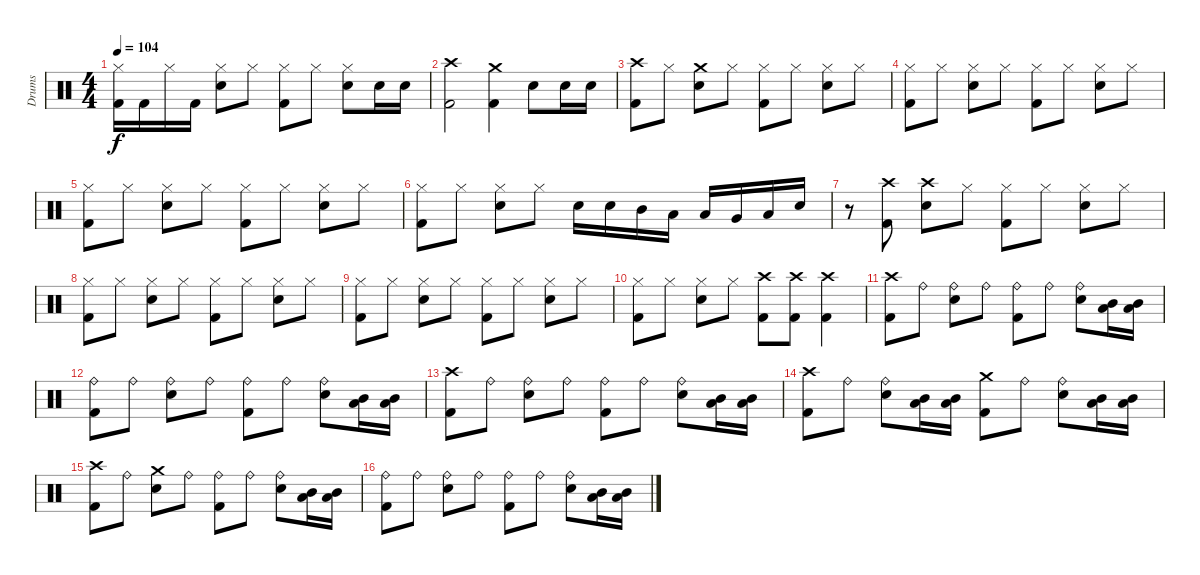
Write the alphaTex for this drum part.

\track ("Drums" "Drums") {instrument percussion}
\staff {score}
\articulation defaults
\ts (4 4)
\tempo 104
\clef neutral
\ks c
("Hi-Hat (closed)" "Kick (hit) 2").16{dy f} "Kick (hit) 2".16 "Hi-Hat (closed)".16 "Kick (hit) 2".16 ("Snare (hit) 2" "Hi-Hat (closed)").8 "Hi-Hat (closed)".8 ("Hi-Hat (closed)" "Kick (hit) 2").8 "Hi-Hat (closed)".8 ("Snare (hit) 2" "Hi-Hat (closed)").8 "Snare (hit) 2".16 "Snare (hit) 2".16 |
("Kick (hit) 2" "Crash high (hit)").2 ("Crash medium (hit)" "Kick (hit) 2").4 "Snare (hit) 2".8 "Snare (hit) 2".16 "Snare (hit) 2".16 |
("Kick (hit) 2" "Crash high (hit)").8 "Hi-Hat (closed)".8 ("Snare (hit) 2" "Crash medium (hit)").8 "Hi-Hat (closed)".8 ("Kick (hit) 2" "Hi-Hat (closed)").8 "Hi-Hat (closed)".8 ("Snare (hit) 2" "Hi-Hat (closed)").8 "Hi-Hat (closed)".8 |
("Kick (hit) 2" "Hi-Hat (closed)").8 "Hi-Hat (closed)".8 ("Hi-Hat (closed)" "Snare (hit) 2").8 "Hi-Hat (closed)".8 ("Hi-Hat (closed)" "Kick (hit) 2").8 "Hi-Hat (closed)".8 ("Snare (hit) 2" "Hi-Hat (closed)").8 "Hi-Hat (closed)".8 |
("Kick (hit) 2" "Hi-Hat (closed)").8 "Hi-Hat (closed)".8 ("Hi-Hat (closed)" "Snare (hit) 2").8 "Hi-Hat (closed)".8 ("Hi-Hat (closed)" "Kick (hit) 2").8 "Hi-Hat (closed)".8 ("Snare (hit) 2" "Hi-Hat (closed)").8 "Hi-Hat (closed)".8 |
("Kick (hit) 2" "Hi-Hat (closed)").8 "Hi-Hat (closed)".8 ("Snare (hit) 2" "Hi-Hat (closed)").8 "Hi-Hat (closed)".8 "Snare (hit) 2".16 "Snare (hit) 2".16 "Mid Tom (hit)".16 "Low Tom (hit)".16 "Low Tom (hit)".16 "Very Low Tom (hit)".16 "Low Floor Tom (hit)".16 "Snare (hit) 2".16 |
r.8 ("Crash high (hit)" "Kick (hit) 2").8 ("Snare (hit) 2" "Crash high (hit)").8 "Hi-Hat (closed)".8 ("Hi-Hat (closed)" "Kick (hit) 2").8 "Hi-Hat (closed)".8 ("Snare (hit) 2" "Hi-Hat (closed)").8 "Hi-Hat (closed)".8 |
("Kick (hit) 2" "Hi-Hat (closed)").8 "Hi-Hat (closed)".8 ("Snare (hit) 2" "Hi-Hat (closed)").8 "Hi-Hat (closed)".8 ("Hi-Hat (closed)" "Kick (hit) 2").8 "Hi-Hat (closed)".8 ("Snare (hit) 2" "Hi-Hat (closed)").8 "Hi-Hat (closed)".8 |
("Kick (hit) 2" "Hi-Hat (closed)").8 "Hi-Hat (closed)".8 ("Snare (hit) 2" "Hi-Hat (closed)").8 "Hi-Hat (closed)".8 ("Kick (hit) 2" "Hi-Hat (closed)").8 "Hi-Hat (closed)".8 ("Snare (hit) 2" "Hi-Hat (closed)").8 "Hi-Hat (closed)".8 |
("Kick (hit) 2" "Hi-Hat (closed)").8 "Hi-Hat (closed)".8 ("Snare (hit) 2" "Hi-Hat (closed)").8 "Hi-Hat (closed)".8 ("Kick (hit) 2" "Crash high (hit)").8 ("Kick (hit) 2" "Crash high (hit)").8 ("Kick (hit) 2" "Crash high (hit)").4 |
("Crash high (hit)" "Kick (hit) 2").8 "Ride (bell)".8 ("Snare (hit) 2" "Ride (bell)").8 "Ride (bell)".8 ("Ride (bell)" "Kick (hit) 2").8 "Ride (bell)".8 ("Ride (bell)" "Snare (hit) 2").8 ("Low Tom (hit)" "Mid Tom (hit)").16 ("Low Tom (hit)" "Mid Tom (hit)").16 |
("Ride (bell)" "Kick (hit) 2").8 "Ride (bell)".8 ("Ride (bell)" "Snare (hit) 2").8 "Ride (bell)".8 ("Ride (bell)" "Kick (hit) 2").8 "Ride (bell)".8 ("Ride (bell)" "Snare (hit) 2").8 ("Mid Tom (hit)" "Low Tom (hit)").16 ("Mid Tom (hit)" "Low Tom (hit)").16 |
("Crash high (hit)" "Kick (hit) 2").8 "Ride (bell)".8 ("Snare (hit) 2" "Ride (bell)").8 "Ride (bell)".8 ("Kick (hit) 2" "Ride (bell)").8 "Ride (bell)".8 ("Ride (bell)" "Snare (hit) 2").8 ("Low Tom (hit)" "Mid Tom (hit)").16 ("Low Tom (hit)" "Mid Tom (hit)").16 |
("Kick (hit) 2" "Crash high (hit)").8 "Ride (bell)".8 ("Snare (hit) 2" "Ride (bell)").8 ("Low Tom (hit)" "Mid Tom (hit)").16 ("Low Tom (hit)" "Mid Tom (hit)").16 ("Kick (hit) 2" "Crash medium (hit)").8 "Ride (bell)".8 ("Ride (bell)" "Snare (hit) 2").8 ("Mid Tom (hit)" "Low Tom (hit)").16 ("Mid Tom (hit)" "Low Tom (hit)").16 |
("Kick (hit) 2" "Crash high (hit)").8 "Ride (bell)".8 ("Snare (hit) 2" "Crash medium (hit)").8 "Ride (bell)".8 ("Ride (bell)" "Kick (hit) 2").8 "Ride (bell)".8 ("Ride (bell)" "Snare (hit) 2").8 ("Low Tom (hit)" "Mid Tom (hit)").16 ("Low Tom (hit)" "Mid Tom (hit)").16 |
("Kick (hit) 2" "Ride (bell)").8 "Ride (bell)".8 ("Ride (bell)" "Snare (hit) 2").8 "Ride (bell)".8 ("Kick (hit) 2" "Ride (bell)").8 "Ride (bell)".8 ("Ride (bell)" "Snare (hit) 2").8 ("Low Tom (hit)" "Mid Tom (hit)").16 ("Low Tom (hit)" "Mid Tom (hit)").16
